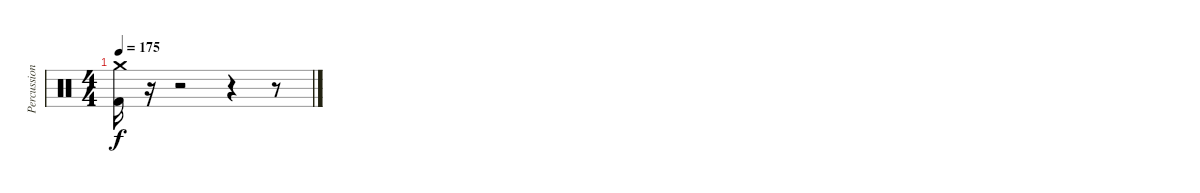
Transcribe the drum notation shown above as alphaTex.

\track ("Percussions" "Percussion") {instrument percussion}
\staff {score}
\articulation defaults
\ts (4 4)
\tempo 175
\clef neutral
\ks c
("Crash medium (hit)" "Kick (hit) 2").16{dy f} r.16 r.2 r.4 r.8
